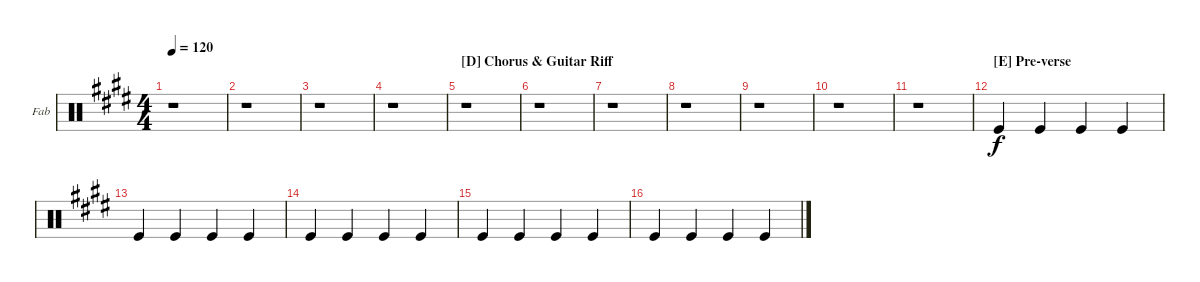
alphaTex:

\bracketExtendMode groupsimilarinstruments
\firstSystemTrackNameOrientation horizontal
\otherSystemsTrackNameOrientation horizontal
\track ("Tambourine" "Fab") {instrument percussion}
\staff {score}
\articulation defaults
\ts (4 4)
\tempo 120
\clef neutral
\ks e
r.1{dy f} |
r.1 |
r.1 |
r.1 |
\section ("D" "Chorus & Guitar Riff")
r.1 |
r.1 |
r.1 |
r.1 |
r.1 |
r.1 |
r.1 |
\section ("E" "Pre-verse")
"Kick (hit)".4 "Kick (hit)".4 "Kick (hit)".4 "Kick (hit)".4 |
"Kick (hit)".4 "Kick (hit)".4 "Kick (hit)".4 "Kick (hit)".4 |
"Kick (hit)".4 "Kick (hit)".4 "Kick (hit)".4 "Kick (hit)".4 |
"Kick (hit)".4 "Kick (hit)".4 "Kick (hit)".4 "Kick (hit)".4 |
"Kick (hit)".4 "Kick (hit)".4 "Kick (hit)".4 "Kick (hit)".4
